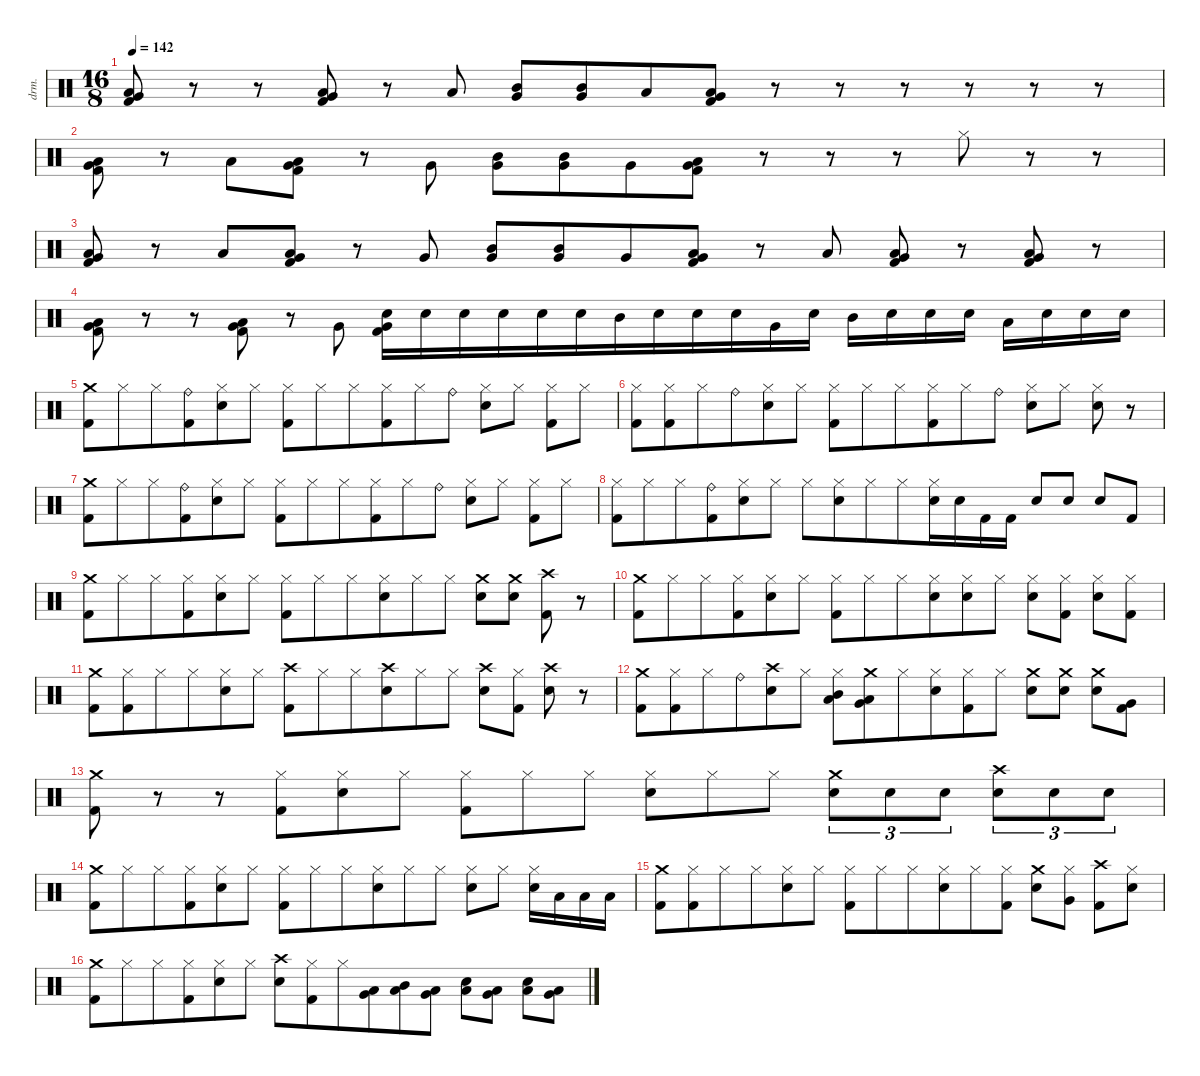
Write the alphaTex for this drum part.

\defaultSystemsLayout 4
\hideDynamics
\bracketExtendMode nobrackets
\otherSystemsTrackNameOrientation horizontal
\track ("Drums" "drm.") {instrument percussion}
\staff {score}
\articulation defaults
\ts (16 8)
\tempo 142
\clef neutral
\ks c
("Very Low Tom (hit)" "Low Floor Tom (hit)" "Kick (hit) 2").8{dy f beam Up} r.8{beam Up} r.8{beam Up} ("Low Tom (hit)" "Very Low Tom (hit)" "Kick (hit) 2").8{beam Up} r.8{beam Up} "Low Floor Tom (hit)".8{dy mp beam Up} ("Mid Tom (hit)" "Very Low Tom (hit)").8{dy f beam Up beam merge} ("Mid Tom (hit)" "Very Low Tom (hit)").8{beam Up beam merge} "Low Floor Tom (hit)".8{dy mp beam Up} ("Very Low Tom (hit)" "Low Floor Tom (hit)" "Kick (hit) 2").8{dy f beam Up} r.8{beam Up} r.8{beam Up} r.8{beam Up} r.8{beam Up} r.8{beam Up} r.8{beam Up} |
("Very Low Tom (hit)" "Low Floor Tom (hit)" "Kick (hit) 2").8{beam Down} r.8{beam Down} "Low Floor Tom (hit)".8{dy mp beam Down} ("Low Tom (hit)" "Very Low Tom (hit)" "Kick (hit) 2").8{dy f beam Down} r.8{beam Down} "Very Low Tom (hit)".8{dy mp beam Down} ("Mid Tom (hit)" "Very Low Tom (hit)").8{dy f beam Down beam merge} ("Mid Tom (hit)" "Very Low Tom (hit)").8{beam Down beam merge} "Very Low Tom (hit)".8{dy mp beam Down} ("Very Low Tom (hit)" "Low Floor Tom (hit)" "Kick (hit) 2").8{dy f beam Down} r.8{beam Down} r.8{beam Down} r.8{beam Down} "Hi-Hat (closed)".8{beam Down} r.8{beam Down} r.8{beam Down} |
("Very Low Tom (hit)" "Low Floor Tom (hit)" "Kick (hit) 2").8{beam Up} r.8{beam Up} "Low Floor Tom (hit)".8{dy mp beam Up} ("Low Tom (hit)" "Very Low Tom (hit)" "Kick (hit) 2").8{dy f beam Up} r.8{beam Up} "Very Low Tom (hit)".8{dy mp beam Up} ("Mid Tom (hit)" "Very Low Tom (hit)").8{dy f beam Up beam merge} ("Mid Tom (hit)" "Very Low Tom (hit)").8{beam Up beam merge} "Very Low Tom (hit)".8{dy mp beam Up} ("Very Low Tom (hit)" "Low Floor Tom (hit)" "Kick (hit) 2").8{dy f beam Up} r.8{beam Up} "Low Floor Tom (hit)".8{dy mp beam Up} ("Low Tom (hit)" "Very Low Tom (hit)" "Kick (hit) 2").8{dy f beam Up} r.8{beam Up} ("Very Low Tom (hit)" "Low Floor Tom (hit)" "Kick (hit) 2").8{beam Up} r.8{beam Up} |
("Very Low Tom (hit)" "Low Floor Tom (hit)" "Kick (hit) 2").8{beam Down} r.8{beam Down} r.8{beam Down} ("Low Tom (hit)" "Very Low Tom (hit)" "Kick (hit) 2").8{beam Down} r.8{beam Down} "Very Low Tom (hit)".8{beam Down} ("Snare (hit) 2" "Very Low Tom (hit)" "Kick (hit) 2").16{beam Down} "Snare (hit) 2".16{beam Down beam merge} "Snare (hit) 2".16{beam Down} "Snare (hit) 2".16{beam Down beam merge} "Snare (hit) 2".16{dy fff beam Down} "Snare (hit) 2".16{beam Down} "Mid Tom (hit)".16{beam Down} "Snare (hit) 2".16{dy f beam Down beam merge} "Snare (hit) 2".16{beam Down} "Snare (hit) 2".16{beam Down beam merge} "Very Low Tom (hit)".16{dy fff beam Down beam merge} "Snare (hit) 2".16{beam Down} "Mid Tom (hit)".16{beam Down} "Snare (hit) 2".16{dy f beam Down beam merge} "Snare (hit) 2".16{beam Down} "Snare (hit) 2".16{beam Down} "Low Floor Tom (hit)".16{dy fff beam Down} "Snare (hit) 2".16{dy f beam Down beam merge} "Snare (hit) 2".16{beam Down} "Snare (hit) 2".16{beam Down} |
("Crash medium (hit)" "Kick (hit) 2").8{beam Down beam merge} "Hi-Hat (closed)".8{beam Down beam merge} "Hi-Hat (closed)".8{beam Down} ("Ride (bell)" "Kick (hit) 2").8{beam Down beam merge} ("Hi-Hat (closed)" "Snare (hit) 2").8{beam Down beam merge} "Hi-Hat (closed)".8{beam Down} ("Hi-Hat (closed)" "Kick (hit) 2").8{beam Down beam merge} "Hi-Hat (closed)".8{beam Down beam merge} "Hi-Hat (closed)".8{beam Down} ("Hi-Hat (closed)" "Kick (hit) 2").8{beam Down beam merge} "Hi-Hat (closed)".8{beam Down beam merge} "Ride (bell)".8{beam Down} ("Hi-Hat (closed)" "Snare (hit) 2").8{beam Down beam merge} "Hi-Hat (closed)".8{beam Down} ("Hi-Hat (closed)" "Kick (hit) 2").8{beam Down beam merge} "Hi-Hat (closed)".8{beam Down} |
("Hi-Hat (closed)" "Kick (hit) 2").8{beam Down beam merge} ("Hi-Hat (closed)" "Kick (hit) 2").8{beam Down beam merge} "Hi-Hat (closed)".8{beam Down} "Ride (bell)".8{beam Down beam merge} ("Hi-Hat (closed)" "Snare (hit) 2").8{beam Down beam merge} "Hi-Hat (closed)".8{beam Down} ("Hi-Hat (closed)" "Kick (hit) 2").8{beam Down beam merge} "Hi-Hat (closed)".8{beam Down beam merge} "Hi-Hat (closed)".8{beam Down} ("Hi-Hat (closed)" "Kick (hit) 2").8{beam Down beam merge} "Hi-Hat (closed)".8{beam Down beam merge} "Ride (bell)".8{beam Down} ("Hi-Hat (closed)" "Snare (hit) 2").8{beam Down beam merge} "Hi-Hat (closed)".8{beam Down} ("Hi-Hat (closed)" "Snare (hit) 2").8{beam Down beam merge} r.8{beam Down} |
("Crash medium (hit)" "Kick (hit) 2").8{beam Down beam merge} "Hi-Hat (closed)".8{beam Down beam merge} "Hi-Hat (closed)".8{beam Down} ("Ride (bell)" "Kick (hit) 2").8{beam Down beam merge} ("Hi-Hat (closed)" "Snare (hit) 2").8{beam Down beam merge} "Hi-Hat (closed)".8{beam Down} ("Hi-Hat (closed)" "Kick (hit) 2").8{beam Down beam merge} "Hi-Hat (closed)".8{beam Down beam merge} "Hi-Hat (closed)".8{beam Down} ("Hi-Hat (closed)" "Kick (hit) 2").8{beam Down beam merge} "Hi-Hat (closed)".8{beam Down beam merge} "Ride (bell)".8{beam Down} ("Hi-Hat (closed)" "Snare (hit) 2").8{beam Down beam merge} "Hi-Hat (closed)".8{beam Down} ("Hi-Hat (closed)" "Kick (hit) 2").8{beam Down beam merge} "Hi-Hat (closed)".8{beam Down} |
("Hi-Hat (closed)" "Kick (hit) 2").8{beam Down beam merge} "Hi-Hat (closed)".8{beam Down beam merge} "Hi-Hat (closed)".8{beam Down} ("Ride (bell)" "Kick (hit) 2").8{beam Down beam merge} ("Hi-Hat (closed)" "Snare (hit) 2").8{beam Down beam merge} "Hi-Hat (closed)".8{beam Down} "Hi-Hat (closed)".8{beam Down beam merge} ("Hi-Hat (closed)" "Snare (hit) 2").8{beam Down beam merge} "Hi-Hat (closed)".8{beam Down} "Hi-Hat (closed)".8{beam Down beam merge} ("Hi-Hat (closed)" "Snare (hit) 2").16{beam Down beam merge} "Snare (hit) 2".16{beam Down beam merge} "Kick (hit) 2".16{beam Down} "Kick (hit) 2".16{beam Down beam split} "Snare (hit) 2".8{beam Up beam merge} "Snare (hit) 2".8{beam Up} "Snare (hit) 2".8{beam Up beam merge} "Kick (hit) 2".8{beam Up} |
("Crash medium (hit)" "Kick (hit) 2").8{beam Down beam merge} "Hi-Hat (closed)".8{beam Down beam merge} "Hi-Hat (closed)".8{beam Down} ("Hi-Hat (closed)" "Kick (hit) 2").8{beam Down beam merge} ("Hi-Hat (closed)" "Snare (hit) 2").8{beam Down beam merge} "Hi-Hat (closed)".8{beam Down} ("Hi-Hat (closed)" "Kick (hit) 2").8{beam Down beam merge} "Hi-Hat (closed)".8{beam Down beam merge} "Hi-Hat (closed)".8{beam Down} ("Hi-Hat (closed)" "Snare (hit) 2").8{beam Down beam merge} "Hi-Hat (closed)".8{beam Down beam merge} "Hi-Hat (closed)".8{beam Down} ("Crash medium (hit)" "Snare (hit) 2").8{dy mp beam Down beam merge} ("Crash medium (hit)" "Snare (hit) 2").8{beam Down} ("Crash high (hit)" "Kick (hit) 2").8{dy mf beam Down} r.8{beam Down} |
("Crash medium (hit)" "Kick (hit) 2").8{dy f beam Down beam merge} "Hi-Hat (closed)".8{beam Down beam merge} "Hi-Hat (closed)".8{beam Down} ("Hi-Hat (closed)" "Kick (hit) 2").8{beam Down beam merge} ("Hi-Hat (closed)" "Snare (hit) 2").8{beam Down beam merge} "Hi-Hat (closed)".8{beam Down} ("Hi-Hat (closed)" "Kick (hit) 2").8{beam Down beam merge} "Hi-Hat (closed)".8{beam Down beam merge} "Hi-Hat (closed)".8{beam Down} ("Hi-Hat (closed)" "Snare (hit) 2").8{beam Down beam merge} ("Hi-Hat (closed)" "Snare (hit) 2").8{beam Down beam merge} "Hi-Hat (closed)".8{beam Down} ("Hi-Hat (closed)" "Snare (hit) 2").8{dy mp beam Down beam merge} ("Hi-Hat (closed)" "Kick (hit) 2").8{beam Down} ("Hi-Hat (closed)" "Snare (hit) 2").8{dy mf beam Down beam merge} ("Hi-Hat (closed)" "Kick (hit) 2").8{dy fff beam Down} |
("Crash medium (hit)" "Kick (hit) 2").8{dy f beam Down beam merge} ("Hi-Hat (closed)" "Kick (hit) 2").8{beam Down beam merge} "Hi-Hat (closed)".8{beam Down} "Hi-Hat (closed)".8{beam Down beam merge} ("Hi-Hat (closed)" "Snare (hit) 2").8{beam Down beam merge} "Hi-Hat (closed)".8{beam Down} ("Crash high (hit)" "Kick (hit) 2").8{dy p beam Down beam merge} "Hi-Hat (closed)".8{dy f beam Down beam merge} "Hi-Hat (closed)".8{beam Down} ("Crash high (hit)" "Snare (hit) 2").8{dy p beam Down beam merge} "Hi-Hat (closed)".8{dy f beam Down beam merge} "Hi-Hat (closed)".8{beam Down} ("Crash high (hit)" "Snare (hit) 2").8{dy p beam Down beam merge} ("Hi-Hat (closed)" "Kick (hit) 2").8{dy f beam Down} ("Crash high (hit)" "Snare (hit) 2").8{dy p beam Down} r.8{beam Down} |
("Crash medium (hit)" "Kick (hit) 2").8{dy f beam Down beam merge} ("Hi-Hat (closed)" "Kick (hit) 2").8{beam Down beam merge} "Hi-Hat (closed)".8{beam Down} "Ride (bell)".8{beam Down beam merge} ("Crash high (hit)" "Snare (hit) 2").8{beam Down beam merge} "Hi-Hat (closed)".8{beam Down} ("Hi-Hat (closed)" "Mid Tom (hit)" "Low Tom (hit)").8{beam Down beam merge} ("Crash medium (hit)" "Very Low Tom (hit)" "Low Floor Tom (hit)").8{beam Down beam merge} "Hi-Hat (closed)".8{beam Down} ("Hi-Hat (closed)" "Snare (hit) 2").8{beam Down beam merge} ("Hi-Hat (closed)" "Kick (hit) 2").8{beam Down beam merge} "Hi-Hat (closed)".8{beam Down} ("Crash medium (hit)" "Snare (hit) 2").8{dy p beam Down beam merge} ("Crash medium (hit)" "Snare (hit) 2").8{beam Down} ("Crash medium (hit)" "Snare (hit) 2").8{beam Down beam merge} ("Very Low Tom (hit)" "Kick (hit) 2").8{dy f beam Down} |
("Crash medium (hit)" "Kick (hit) 2").8{beam Down} r.8{beam Down} r.8{beam Down} ("Hi-Hat (closed)" "Kick (hit) 2").8{beam Down beam merge} ("Hi-Hat (closed)" "Snare (hit) 2").8{beam Down beam merge} "Hi-Hat (closed)".8{beam Down} ("Hi-Hat (closed)" "Kick (hit) 2").8{beam Down beam merge} "Hi-Hat (closed)".8{beam Down beam merge} "Hi-Hat (closed)".8{beam Down beam split} ("Hi-Hat (closed)" "Snare (hit) 2").8{beam Down beam merge} "Hi-Hat (closed)".8{beam Down beam merge} "Hi-Hat (closed)".8{beam Down} ("Crash medium (hit)" "Snare (hit) 2").8{tu (3 2) beam Down} "Snare (hit) 2".8{tu (3 2) beam Down beam merge} "Snare (hit) 2".8{tu (3 2) beam Down} ("Crash high (hit)" "Snare (hit) 2").8{tu (3 2) beam Down} "Snare (hit) 2".8{tu (3 2) beam Down beam merge} "Snare (hit) 2".8{tu (3 2) beam Down} |
("Crash medium (hit)" "Kick (hit) 2").8{beam Down beam merge} "Hi-Hat (closed)".8{beam Down beam merge} "Hi-Hat (closed)".8{beam Down} ("Hi-Hat (closed)" "Kick (hit) 2").8{beam Down beam merge} ("Hi-Hat (closed)" "Snare (hit) 2").8{beam Down beam merge} "Hi-Hat (closed)".8{beam Down} ("Hi-Hat (closed)" "Kick (hit) 2").8{beam Down beam merge} "Hi-Hat (closed)".8{beam Down beam merge} "Hi-Hat (closed)".8{beam Down} ("Hi-Hat (closed)" "Snare (hit) 2").8{beam Down beam merge} "Hi-Hat (closed)".8{beam Down beam merge} "Hi-Hat (closed)".8{beam Down} ("Hi-Hat (closed)" "Snare (hit) 2").8{beam Down beam merge} "Hi-Hat (closed)".8{beam Down} ("Hi-Hat (closed)" "Snare (hit) 2").16{beam Down} "Low Floor Tom (hit)".16{beam Down beam merge} "Low Floor Tom (hit)".16{beam Down} "Low Floor Tom (hit)".16{beam Down} |
("Crash medium (hit)" "Kick (hit) 2").8{beam Down beam merge} ("Hi-Hat (closed)" "Kick (hit) 2").8{beam Down beam merge} "Hi-Hat (closed)".8{beam Down} "Hi-Hat (closed)".8{beam Down beam merge} ("Hi-Hat (closed)" "Snare (hit) 2").8{beam Down beam merge} "Hi-Hat (closed)".8{beam Down} ("Hi-Hat (closed)" "Kick (hit) 2").8{beam Down beam merge} "Hi-Hat (closed)".8{beam Down beam merge} "Hi-Hat (closed)".8{beam Down} ("Hi-Hat (closed)" "Snare (hit) 2").8{beam Down beam merge} "Hi-Hat (closed)".8{beam Down beam merge} ("Hi-Hat (closed)" "Kick (hit) 2").8{beam Down} ("Crash medium (hit)" "Snare (hit) 2").8{dy mp beam Down beam merge} ("Hi-Hat (closed)" "Very Low Tom (hit)").8{dy f beam Down} ("Crash high (hit)" "Kick (hit) 2").8{dy mp beam Down beam merge} ("Hi-Hat (closed)" "Snare (hit) 2").8{dy f beam Down} |
("Crash medium (hit)" "Kick (hit) 2").8{beam Down beam merge} "Hi-Hat (closed)".8{beam Down beam merge} "Hi-Hat (closed)".8{beam Down} ("Hi-Hat (closed)" "Kick (hit) 2").8{beam Down beam merge} ("Hi-Hat (closed)" "Snare (hit) 2").8{beam Down beam merge} "Hi-Hat (closed)".8{beam Down} ("Crash high (hit)" "Snare (hit) 2").8{beam Down beam merge} ("Hi-Hat (closed)" "Kick (hit) 2").8{beam Down beam merge} "Hi-Hat (closed)".8{beam Down} ("Very Low Tom (hit)" "Low Floor Tom (hit)").8{beam Down beam merge} ("Mid Tom (hit)" "Low Tom (hit)").8{beam Down beam merge} ("Low Tom (hit)" "Very Low Tom (hit)").8{beam Down} ("Snare (hit) 2" "Low Floor Tom (hit)").8{beam Down beam merge} ("Very Low Tom (hit)" "Low Floor Tom (hit)").8{beam Down} ("Snare (hit) 2" "Low Floor Tom (hit)").8{beam Down beam merge} ("Very Low Tom (hit)" "Low Floor Tom (hit)").8{beam Down}
